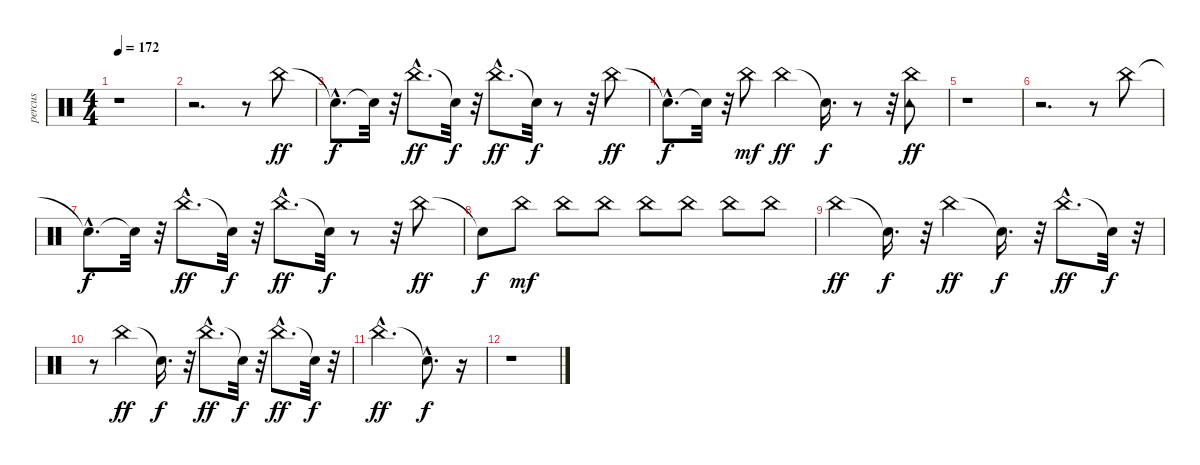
\track ("percus" "percus") {instrument percussion}
\staff {score}
\articulation defaults
\ts (4 4)
\tempo 172
\clef neutral
\ks c
r.1{dy ff} |
r.2{d} r.8 "China (hit)".8 |
"Snare (hit)"{hac t}.8{d dy f} "Snare (hit)"{t}.32 r.32 "China (hit)"{hac}.8{d dy ff} "Snare (hit)"{t}.32{dy f} r.32 "China (hit)"{hac}.8{d dy ff} "Snare (hit)"{t}.32{dy f} r.8 r.32 "China (hit)".8{dy ff} |
"Snare (hit)"{hac t}.8{d dy f} "Snare (hit)"{t}.32 r.32 "China (hit)".8{dy mf} "China (hit)".4{dy ff} "Snare (hit)"{t}.16{d dy f} r.8 r.32 ("China (hit)" "Tambourine (hit)").8{dy ff} |
r.1 |
r.2{d} r.8 "China (hit)".8 |
"Snare (hit)"{hac t}.8{d dy f} "Snare (hit)"{t}.32 r.32 "China (hit)"{hac}.8{d dy ff} "Snare (hit)"{t}.32{dy f} r.32 "China (hit)"{hac}.8{d dy ff} "Snare (hit)"{t}.32{dy f} r.8 r.32 "China (hit)".8{dy ff} |
"Snare (hit)"{t}.8{dy f} "China (hit)".8{dy mf} "China (hit)".8 "China (hit)".8 "China (hit)".8 "China (hit)".8 "China (hit)".8 "China (hit)".8 |
"China (hit)".4{dy ff} "Snare (hit)"{t}.16{d dy f} r.32 "China (hit)".4{dy ff} "Snare (hit)"{t}.16{d dy f} r.32 "China (hit)"{hac}.8{d dy ff} "Snare (hit)"{t}.32{dy f} r.32 |
r.8 "China (hit)".4{dy ff} "Snare (hit)"{t}.16{d dy f} r.32 "China (hit)"{hac}.8{d dy ff} "Snare (hit)"{t}.32{dy f} r.32 "China (hit)"{hac}.8{d dy ff} "Snare (hit)"{t}.32{dy f} r.32 |
"China (hit)"{hac}.2{d dy ff} "Snare (hit)"{hac t}.8{d dy f} r.16 |
r.1
